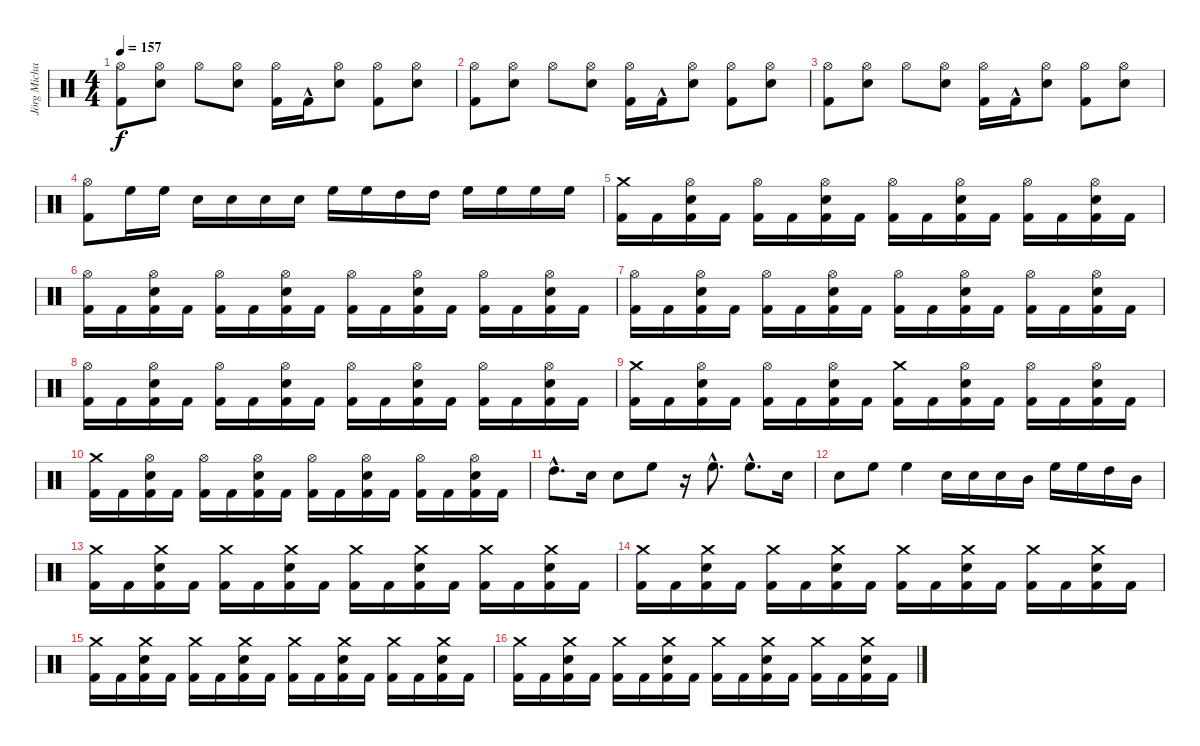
\track ("Jörg Michael" "Jörg Micha") {instrument percussion}
\staff {score}
\articulation defaults
\ts (4 4)
\tempo 157
\clef neutral
\ks c
("Hi-Hat (open)" "Kick (hit) 2").8{dy f} ("Snare (hit) 2" "Hi-Hat (open)").8 "Hi-Hat (open)".8 ("Snare (hit) 2" "Hi-Hat (open)").8 ("Kick (hit) 2" "Hi-Hat (open)").16 "Kick (hit) 2"{hac}.16 ("Snare (hit) 2" "Hi-Hat (open)").8 ("Kick (hit) 2" "Hi-Hat (open)").8 ("Snare (hit) 2" "Hi-Hat (open)").8 |
("Hi-Hat (open)" "Kick (hit) 2").8 ("Snare (hit) 2" "Hi-Hat (open)").8 "Hi-Hat (open)".8 ("Snare (hit) 2" "Hi-Hat (open)").8 ("Kick (hit) 2" "Hi-Hat (open)").16 "Kick (hit) 2"{hac}.16 ("Snare (hit) 2" "Hi-Hat (open)").8 ("Kick (hit) 2" "Hi-Hat (open)").8 ("Snare (hit) 2" "Hi-Hat (open)").8 |
("Hi-Hat (open)" "Kick (hit) 2").8 ("Snare (hit) 2" "Hi-Hat (open)").8 "Hi-Hat (open)".8 ("Snare (hit) 2" "Hi-Hat (open)").8 ("Kick (hit) 2" "Hi-Hat (open)").16 "Kick (hit) 2"{hac}.16 ("Snare (hit) 2" "Hi-Hat (open)").8 ("Kick (hit) 2" "Hi-Hat (open)").8 ("Snare (hit) 2" "Hi-Hat (open)").8 |
("Kick (hit) 2" "Hi-Hat (open)").8 "High Floor Tom (hit)".16 "High Floor Tom (hit)".16 "Snare (hit) 2".16 "Snare (hit) 2".16 "Snare (hit) 2".16 "Snare (hit) 2".16 "High Floor Tom (hit)".16 "High Floor Tom (hit)".16 "High Tom (hit)".16 "High Tom (hit)".16 "High Floor Tom (hit)".16 "High Floor Tom (hit)".16 "High Floor Tom (hit)".16 "High Floor Tom (hit)".16 |
("Crash medium (hit)" "Kick (hit) 2").16 "Kick (hit) 2".16 ("Snare (hit) 2" "Hi-Hat (open)" "Kick (hit) 2").16 "Kick (hit) 2".16 ("Hi-Hat (open)" "Kick (hit) 2").16 "Kick (hit) 2".16 ("Snare (hit) 2" "Hi-Hat (open)" "Kick (hit) 2").16 "Kick (hit) 2".16 ("Hi-Hat (open)" "Kick (hit) 2").16 "Kick (hit) 2".16 ("Snare (hit) 2" "Hi-Hat (open)" "Kick (hit) 2").16 "Kick (hit) 2".16 ("Hi-Hat (open)" "Kick (hit) 2").16 "Kick (hit) 2".16 ("Snare (hit) 2" "Hi-Hat (open)" "Kick (hit) 2").16 "Kick (hit) 2".16 |
("Hi-Hat (open)" "Kick (hit) 2").16 "Kick (hit) 2".16 ("Hi-Hat (open)" "Snare (hit) 2" "Kick (hit) 2").16 "Kick (hit) 2".16 ("Hi-Hat (open)" "Kick (hit) 2").16 "Kick (hit) 2".16 ("Hi-Hat (open)" "Snare (hit) 2" "Kick (hit) 2").16 "Kick (hit) 2".16 ("Hi-Hat (open)" "Kick (hit) 2").16 "Kick (hit) 2".16 ("Hi-Hat (open)" "Snare (hit) 2" "Kick (hit) 2").16 "Kick (hit) 2".16 ("Hi-Hat (open)" "Kick (hit) 2").16 "Kick (hit) 2".16 ("Hi-Hat (open)" "Snare (hit) 2" "Kick (hit) 2").16 "Kick (hit) 2".16 |
("Hi-Hat (open)" "Kick (hit) 2").16 "Kick (hit) 2".16 ("Hi-Hat (open)" "Snare (hit) 2" "Kick (hit) 2").16 "Kick (hit) 2".16 ("Hi-Hat (open)" "Kick (hit) 2").16 "Kick (hit) 2".16 ("Hi-Hat (open)" "Snare (hit) 2" "Kick (hit) 2").16 "Kick (hit) 2".16 ("Hi-Hat (open)" "Kick (hit) 2").16 "Kick (hit) 2".16 ("Hi-Hat (open)" "Snare (hit) 2" "Kick (hit) 2").16 "Kick (hit) 2".16 ("Hi-Hat (open)" "Kick (hit) 2").16 "Kick (hit) 2".16 ("Hi-Hat (open)" "Snare (hit) 2" "Kick (hit) 2").16 "Kick (hit) 2".16 |
("Hi-Hat (open)" "Kick (hit) 2").16 "Kick (hit) 2".16 ("Hi-Hat (open)" "Snare (hit) 2" "Kick (hit) 2").16 "Kick (hit) 2".16 ("Hi-Hat (open)" "Kick (hit) 2").16 "Kick (hit) 2".16 ("Hi-Hat (open)" "Snare (hit) 2" "Kick (hit) 2").16 "Kick (hit) 2".16 ("Hi-Hat (open)" "Kick (hit) 2").16 "Kick (hit) 2".16 ("Hi-Hat (open)" "Snare (hit) 2" "Kick (hit) 2").16 "Kick (hit) 2".16 ("Hi-Hat (open)" "Kick (hit) 2").16 "Kick (hit) 2".16 ("Hi-Hat (open)" "Snare (hit) 2" "Kick (hit) 2").16 "Kick (hit) 2".16 |
("Crash medium (hit)" "Kick (hit) 2").16 "Kick (hit) 2".16 ("Hi-Hat (open)" "Snare (hit) 2" "Kick (hit) 2").16 "Kick (hit) 2".16 ("Hi-Hat (open)" "Kick (hit) 2").16 "Kick (hit) 2".16 ("Hi-Hat (open)" "Snare (hit) 2" "Kick (hit) 2").16 "Kick (hit) 2".16 ("Crash medium (hit)" "Kick (hit) 2").16 "Kick (hit) 2".16 ("Hi-Hat (open)" "Snare (hit) 2" "Kick (hit) 2").16 "Kick (hit) 2".16 ("Hi-Hat (open)" "Kick (hit) 2").16 "Kick (hit) 2".16 ("Hi-Hat (open)" "Snare (hit) 2" "Kick (hit) 2").16 "Kick (hit) 2".16 |
("Crash medium (hit)" "Kick (hit) 2").16 "Kick (hit) 2".16 ("Hi-Hat (open)" "Snare (hit) 2" "Kick (hit) 2").16 "Kick (hit) 2".16 ("Hi-Hat (open)" "Kick (hit) 2").16 "Kick (hit) 2".16 ("Hi-Hat (open)" "Snare (hit) 2" "Kick (hit) 2").16 "Kick (hit) 2".16 ("Hi-Hat (open)" "Kick (hit) 2").16 "Kick (hit) 2".16 ("Hi-Hat (open)" "Snare (hit) 2" "Kick (hit) 2").16 "Kick (hit) 2".16 ("Hi-Hat (open)" "Kick (hit) 2").16 "Kick (hit) 2".16 ("Hi-Hat (open)" "Snare (hit) 2" "Kick (hit) 2").16 "Kick (hit) 2".16 |
"High Tom (hit)"{hac}.8{d} "Snare (hit) 2".16 "Snare (hit) 2".8 "High Floor Tom (hit)".8 r.16 "High Floor Tom (hit)"{hac}.8{d} "High Floor Tom (hit)"{hac}.8{d} "Snare (hit) 2".16 |
"Snare (hit) 2".8 "High Floor Tom (hit)".8 "High Floor Tom (hit)".4 "Snare (hit) 2".16 "Snare (hit) 2".16 "Snare (hit) 2".16 "Mid Tom (hit)".16 "High Floor Tom (hit)".16 "High Floor Tom (hit)".16 "High Tom (hit)".16 "Mid Tom (hit)".16 |
("Crash medium (hit)" "Kick (hit) 2").16 "Kick (hit) 2".16 ("Crash medium (hit)" "Snare (hit) 2" "Kick (hit) 2").16 "Kick (hit) 2".16 ("Crash medium (hit)" "Kick (hit) 2").16 "Kick (hit) 2".16 ("Crash medium (hit)" "Snare (hit) 2" "Kick (hit) 2").16 "Kick (hit) 2".16 ("Crash medium (hit)" "Kick (hit) 2").16 "Kick (hit) 2".16 ("Crash medium (hit)" "Snare (hit) 2" "Kick (hit) 2").16 "Kick (hit) 2".16 ("Crash medium (hit)" "Kick (hit) 2").16 "Kick (hit) 2".16 ("Crash medium (hit)" "Snare (hit) 2" "Kick (hit) 2").16 "Kick (hit) 2".16 |
("Crash medium (hit)" "Kick (hit) 2").16 "Kick (hit) 2".16 ("Crash medium (hit)" "Snare (hit) 2" "Kick (hit) 2").16 "Kick (hit) 2".16 ("Crash medium (hit)" "Kick (hit) 2").16 "Kick (hit) 2".16 ("Crash medium (hit)" "Snare (hit) 2" "Kick (hit) 2").16 "Kick (hit) 2".16 ("Crash medium (hit)" "Kick (hit) 2").16 "Kick (hit) 2".16 ("Crash medium (hit)" "Snare (hit) 2" "Kick (hit) 2").16 "Kick (hit) 2".16 ("Crash medium (hit)" "Kick (hit) 2").16 "Kick (hit) 2".16 ("Crash medium (hit)" "Snare (hit) 2" "Kick (hit) 2").16 "Kick (hit) 2".16 |
("Crash medium (hit)" "Kick (hit) 2").16 "Kick (hit) 2".16 ("Crash medium (hit)" "Snare (hit) 2" "Kick (hit) 2").16 "Kick (hit) 2".16 ("Crash medium (hit)" "Kick (hit) 2").16 "Kick (hit) 2".16 ("Crash medium (hit)" "Snare (hit) 2" "Kick (hit) 2").16 "Kick (hit) 2".16 ("Crash medium (hit)" "Kick (hit) 2").16 "Kick (hit) 2".16 ("Crash medium (hit)" "Snare (hit) 2" "Kick (hit) 2").16 "Kick (hit) 2".16 ("Crash medium (hit)" "Kick (hit) 2").16 "Kick (hit) 2".16 ("Crash medium (hit)" "Snare (hit) 2" "Kick (hit) 2").16 "Kick (hit) 2".16 |
("Crash medium (hit)" "Kick (hit) 2").16 "Kick (hit) 2".16 ("Crash medium (hit)" "Snare (hit) 2" "Kick (hit) 2").16 "Kick (hit) 2".16 ("Crash medium (hit)" "Kick (hit) 2").16 "Kick (hit) 2".16 ("Crash medium (hit)" "Snare (hit) 2" "Kick (hit) 2").16 "Kick (hit) 2".16 ("Crash medium (hit)" "Kick (hit) 2").16 "Kick (hit) 2".16 ("Crash medium (hit)" "Snare (hit) 2" "Kick (hit) 2").16 "Kick (hit) 2".16 ("Crash medium (hit)" "Kick (hit) 2").16 "Kick (hit) 2".16 ("Crash medium (hit)" "Snare (hit) 2" "Kick (hit) 2").16 "Kick (hit) 2".16
